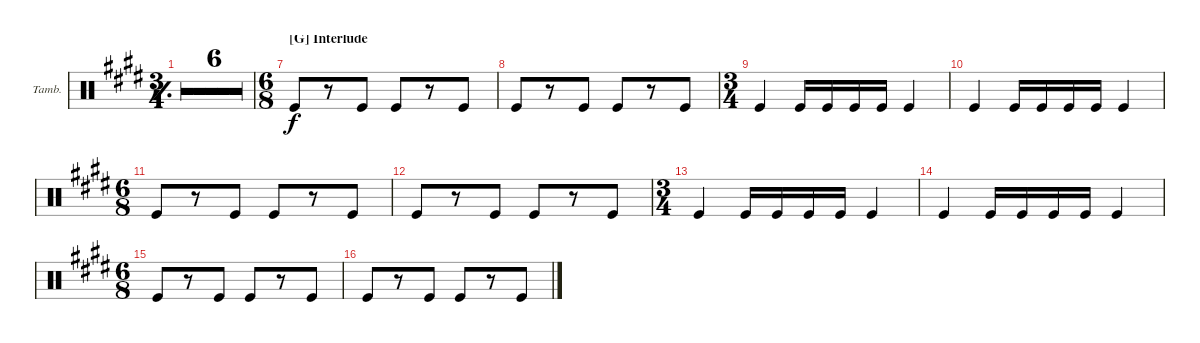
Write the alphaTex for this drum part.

\defaultSystemsLayout 4
\bracketExtendMode groupsimilarinstruments
\firstSystemTrackNameOrientation horizontal
\otherSystemsTrackNameOrientation horizontal
\track ("Tambourine" "Tamb.") {multiBarRest instrument percussion}
\staff {score}
\articulation defaults
\ts (3 4)
\tempo
165.176
\accidentals auto
\clef neutral
\ottava regular
\simile simple
\ks e
|
|
|
|
|
|
\ts (6 8)
\section ("G" "Interlude")
\simile none "Kick (hit)".8
r.8 "Kick (hit)".8 "Kick (hit)".8 r.8 "Kick (hit)".8 |
"Kick (hit)".8 r.8 "Kick (hit)".8 "Kick (hit)".8 r.8 "Kick (hit)".8 |
\ts (3 4)
"Kick (hit)".4 "Kick (hit)".16 "Kick (hit)".16 "Kick (hit)".16 "Kick (hit)".16 "Kick (hit)".4 |
"Kick (hit)".4 "Kick (hit)".16 "Kick (hit)".16 "Kick (hit)".16 "Kick (hit)".16 "Kick (hit)".4 |
\ts (6 8)
"Kick (hit)".8 r.8 "Kick (hit)".8 "Kick (hit)".8 r.8 "Kick (hit)".8 |
"Kick (hit)".8 r.8 "Kick (hit)".8 "Kick (hit)".8 r.8 "Kick (hit)".8 |
\ts (3 4)
"Kick (hit)".4 "Kick (hit)".16 "Kick (hit)".16 "Kick (hit)".16 "Kick (hit)".16 "Kick (hit)".4 |
"Kick (hit)".4 "Kick (hit)".16 "Kick (hit)".16 "Kick (hit)".16 "Kick (hit)".16 "Kick (hit)".4 |
\ts (6 8)
"Kick (hit)".8 r.8 "Kick (hit)".8 "Kick (hit)".8 r.8 "Kick (hit)".8 |
"Kick (hit)".8 r.8 "Kick (hit)".8 "Kick (hit)".8 r.8 "Kick (hit)".8
